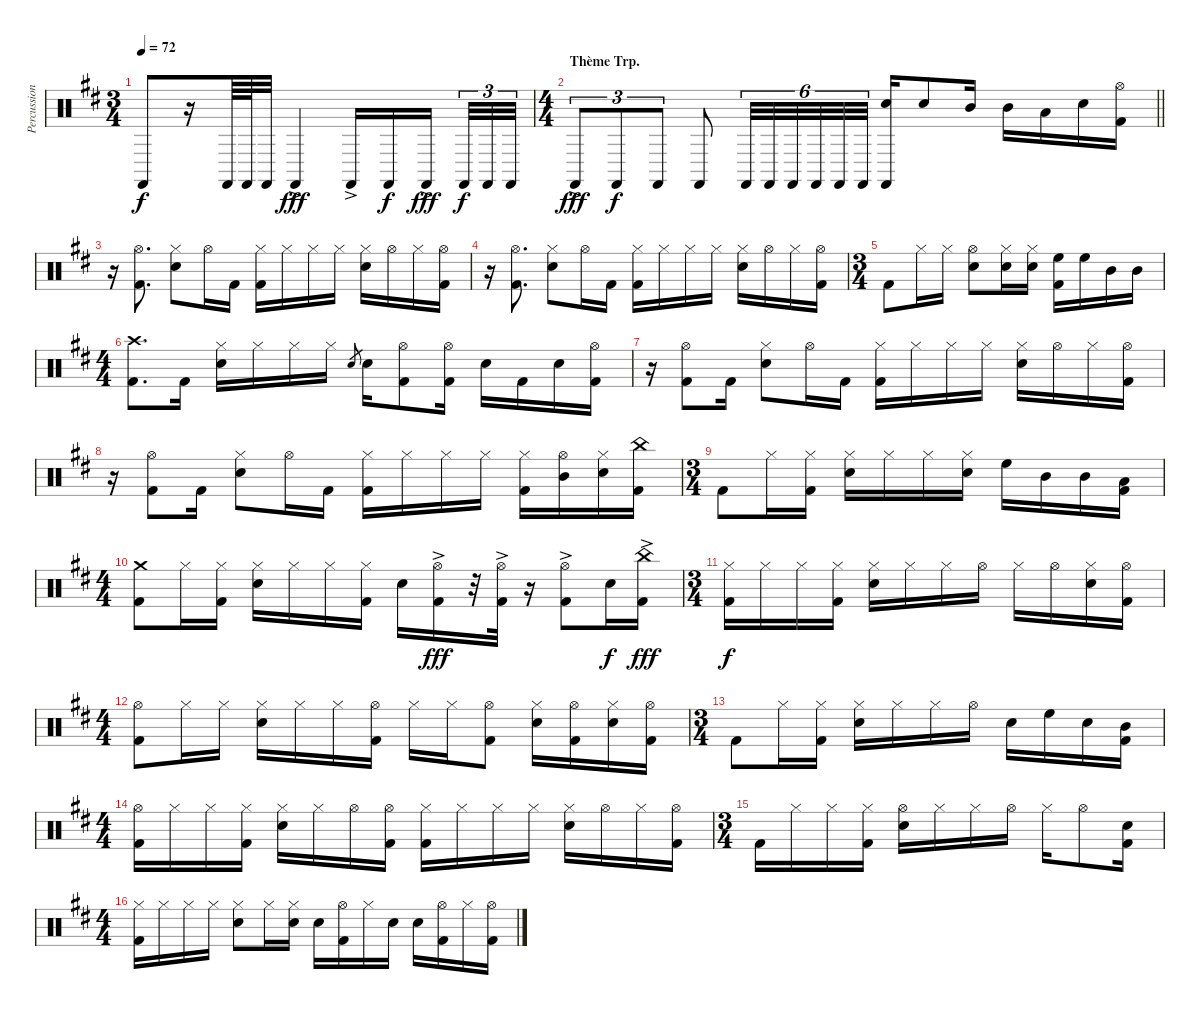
\track ("Percussions" "Percussion") {instrument percussion}
\staff {score}
\articulation defaults
\ts (3 4)
\tempo 72
\clef neutral
\ks bminor "Castanets (hit)".8{dy f}
r.16 "Castanets (hit)".64 "Castanets (hit)".64 "Castanets (hit)".32 "Castanets (hit)"{ac}.4{dy fff} "Castanets (hit)"{ac}.16 "Castanets (hit)".16{dy f} "Castanets (hit)"{ac}.16{dy fff} "Castanets (hit)".32{tu (3 2) dy f} "Castanets (hit)".32{tu (3 2)} "Castanets (hit)".32{tu (3 2)} |
\ts (4 4)
\section ("" "Thème Trp.")
\barLineRight lightlight "Castanets (hit)"{ac}.8{tu (3 2) dy fff} "Castanets (hit)".8{tu (3 2) dy f} "Castanets (hit)".8{tu (3 2)} "Castanets (hit)".8 "Castanets (hit)".32{tu (6 4)} "Castanets (hit)".32{tu (6 4)} "Castanets (hit)".32{tu (6 4)} "Castanets (hit)".32{tu (6 4)} "Castanets (hit)".32{tu (6 4)} "Castanets (hit)".32{tu (6 4)}
("Castanets (hit)" "Snare (hit) 2").16{volume 14 balance 8} "Snare (hit) 2".8 "Mid Tom (hit)".16 "Mid Tom (hit)".16 "Low Tom (hit)".16 "Snare (hit) 2".16 ("Hi-Hat (open)" "Kick (hit) 2").16 |
r.16 ("Hi-Hat (open)" "Kick (hit) 2").8{d} ("Hi-Hat (closed)" "Snare (hit) 2").8 "Hi-Hat (open)".16 "Kick (hit) 2".16 ("Hi-Hat (closed)" "Kick (hit) 2").16 "Hi-Hat (closed)".16 "Hi-Hat (closed)".16 "Hi-Hat (closed)".16 ("Hi-Hat (closed)" "Snare (hit) 2").16 "Hi-Hat (open)".16 "Hi-Hat (closed)".16 ("Hi-Hat (open)" "Kick (hit) 2").16 |
r.16 ("Hi-Hat (open)" "Kick (hit) 2").8{d} ("Hi-Hat (closed)" "Snare (hit) 2").8 "Hi-Hat (open)".16 "Kick (hit) 2".16 ("Hi-Hat (closed)" "Kick (hit) 2").16 "Hi-Hat (closed)".16 "Hi-Hat (closed)".16 "Hi-Hat (closed)".16 ("Hi-Hat (closed)" "Snare (hit) 2").16 "Hi-Hat (open)".16 "Hi-Hat (closed)".16 ("Hi-Hat (open)" "Kick (hit) 2").16 |
\ts (3 4)
"Kick (hit) 2".8 "Hi-Hat (closed)".16 "Hi-Hat (closed)".16 ("Hi-Hat (open)" "Snare (hit) 2").8 ("Hi-Hat (closed)" "Snare (hit) 2").16 ("Hi-Hat (closed)" "Snare (hit) 2").16 ("High Floor Tom (hit)" "Kick (hit) 2").16 "High Floor Tom (hit)".16 "Mid Tom (hit)".16 "Mid Tom (hit)".16 |
\ts (4 4)
("Crash high (hit)" "Kick (hit) 2").8{d} "Kick (hit) 2".16 ("Hi-Hat (closed)" "Snare (hit) 2").16 "Hi-Hat (closed)".16 "Hi-Hat (closed)".16 "Hi-Hat (closed)".16 "Snare (hit) 2".8{gr} "Snare (hit) 2".16 ("Hi-Hat (open)" "Kick (hit) 2").8 ("Hi-Hat (open)" "Kick (hit) 2").16 "Snare (hit) 2".16 "Kick (hit) 2".16 "Snare (hit) 2".16 ("Hi-Hat (open)" "Kick (hit) 2").16 |
r.16 ("Hi-Hat (open)" "Kick (hit) 2").8 "Kick (hit) 2".16 ("Hi-Hat (closed)" "Snare (hit) 2").8 "Hi-Hat (open)".16 "Kick (hit) 2".16 ("Hi-Hat (closed)" "Kick (hit) 2").16 "Hi-Hat (closed)".16 "Hi-Hat (closed)".16 "Hi-Hat (closed)".16 ("Hi-Hat (closed)" "Snare (hit) 2").16 "Hi-Hat (open)".16 "Hi-Hat (closed)".16 ("Hi-Hat (open)" "Kick (hit) 2").16 |
r.16 ("Hi-Hat (open)" "Kick (hit) 2").8 "Kick (hit) 2".16 ("Hi-Hat (closed)" "Snare (hit) 2").8 "Hi-Hat (open)".16 "Kick (hit) 2".16 ("Hi-Hat (closed)" "Kick (hit) 2").16 "Hi-Hat (closed)".16 "Hi-Hat (closed)".16 "Hi-Hat (closed)".16 ("Hi-Hat (closed)" "Kick (hit) 2").16 ("Hi-Hat (open)" "Mid Tom (hit)").16 ("Hi-Hat (closed)" "Snare (hit) 2").16 ("China (hit)" "Kick (hit) 2").16 |
\ts (3 4)
"Kick (hit) 2".8 "Hi-Hat (closed)".16 ("Hi-Hat (closed)" "Kick (hit) 2").16 ("Hi-Hat (closed)" "Snare (hit) 2").16 "Hi-Hat (closed)".16 "Hi-Hat (closed)".16 ("Hi-Hat (closed)" "Snare (hit) 2").16 "High Floor Tom (hit)".16 "Mid Tom (hit)".16 "Mid Tom (hit)".16 ("Low Tom (hit)" "Kick (hit) 2").16 |
\ts (4 4)
("Crash medium (hit)" "Kick (hit) 2").8 "Hi-Hat (closed)".16 ("Hi-Hat (closed)" "Kick (hit) 2").16 ("Hi-Hat (closed)" "Snare (hit) 2").16 "Hi-Hat (closed)".16 "Hi-Hat (closed)".16 ("Hi-Hat (closed)" "Kick (hit) 2").16 "Snare (hit) 2".16 ("Hi-Hat (open)"{ac} "Kick (hit) 2").16{dy fff} r.32 ("Hi-Hat (open)"{ac} "Kick (hit) 2").32 r.16 ("Hi-Hat (open)"{ac} "Kick (hit) 2").8 "Snare (hit) 2".16{dy f} ("China (hit)"{ac} "Kick (hit) 2").16{dy fff} |
\ts (3 4)
("Hi-Hat (closed)" "Kick (hit) 2").16{dy f} "Hi-Hat (closed)".16 "Hi-Hat (closed)".16 ("Hi-Hat (closed)" "Kick (hit) 2").16 ("Hi-Hat (closed)" "Snare (hit) 2").16 "Hi-Hat (closed)".16 "Hi-Hat (closed)".16 "Hi-Hat (open)".16 "Hi-Hat (closed)".16 "Hi-Hat (open)".16 ("Hi-Hat (closed)" "Snare (hit) 2").16 ("Hi-Hat (open)" "Kick (hit) 2").16 |
\ts (4 4)
("Hi-Hat (open)" "Kick (hit) 2").8 "Hi-Hat (closed)".16 "Hi-Hat (closed)".16 ("Hi-Hat (closed)" "Snare (hit) 2").16 "Hi-Hat (closed)".16 "Hi-Hat (closed)".16 ("Hi-Hat (open)" "Kick (hit) 2").16 "Hi-Hat (closed)".16 "Hi-Hat (closed)".16 ("Hi-Hat (open)" "Kick (hit) 2").8 ("Hi-Hat (closed)" "Snare (hit) 2").16 ("Hi-Hat (open)" "Kick (hit) 2").16 ("Hi-Hat (closed)" "Snare (hit) 2").16 ("Hi-Hat (open)" "Kick (hit) 2").16 |
\ts (3 4)
"Kick (hit) 2".8 "Hi-Hat (closed)".16 ("Hi-Hat (closed)" "Kick (hit) 2").16 ("Hi-Hat (closed)" "Snare (hit) 2").16 "Hi-Hat (closed)".16 "Hi-Hat (closed)".16 "Hi-Hat (open)".16 "Snare (hit) 2".16 "High Floor Tom (hit)".16 "Snare (hit) 2".16 ("Mid Tom (hit)" "Kick (hit) 2").16 |
\ts (4 4)
("Hi-Hat (open)" "Kick (hit) 2").16 "Hi-Hat (closed)".16 "Hi-Hat (closed)".16 ("Hi-Hat (closed)" "Kick (hit) 2").16 ("Hi-Hat (closed)" "Snare (hit) 2").16 "Hi-Hat (closed)".16 "Hi-Hat (open)".16 ("Hi-Hat (open)" "Kick (hit) 2").16 ("Hi-Hat (closed)" "Kick (hit) 2").16 "Hi-Hat (closed)".16 "Hi-Hat (closed)".16 "Hi-Hat (closed)".16 ("Hi-Hat (closed)" "Snare (hit) 2").16 "Hi-Hat (open)".16 "Hi-Hat (closed)".16 ("Hi-Hat (open)" "Kick (hit) 2").16 |
\ts (3 4)
"Kick (hit) 2".16 "Hi-Hat (closed)".16 "Hi-Hat (closed)".16 ("Hi-Hat (closed)" "Kick (hit) 2").16 ("Hi-Hat (open)" "Snare (hit) 2").16 "Hi-Hat (closed)".16 "Hi-Hat (closed)".16 "Hi-Hat (open)".16 "Hi-Hat (closed)".16 "Hi-Hat (open)".8 ("Snare (hit) 2" "Kick (hit) 2").16 |
\ts (4 4)
("Hi-Hat (closed)" "Kick (hit) 2").16 "Hi-Hat (closed)".16 "Hi-Hat (closed)".16 "Hi-Hat (closed)".16 ("Hi-Hat (closed)" "Snare (hit) 2").8 "Hi-Hat (closed)".16 ("Hi-Hat (closed)" "Snare (hit) 2").16 "Snare (hit) 2".16 ("Hi-Hat (open)" "Kick (hit) 2").16 "Hi-Hat (closed)".16 "Snare (hit) 2".16 "Snare (hit) 2".16 ("Hi-Hat (open)" "Kick (hit) 2").16 "Hi-Hat (closed)".16 ("Hi-Hat (open)" "Kick (hit) 2").16
